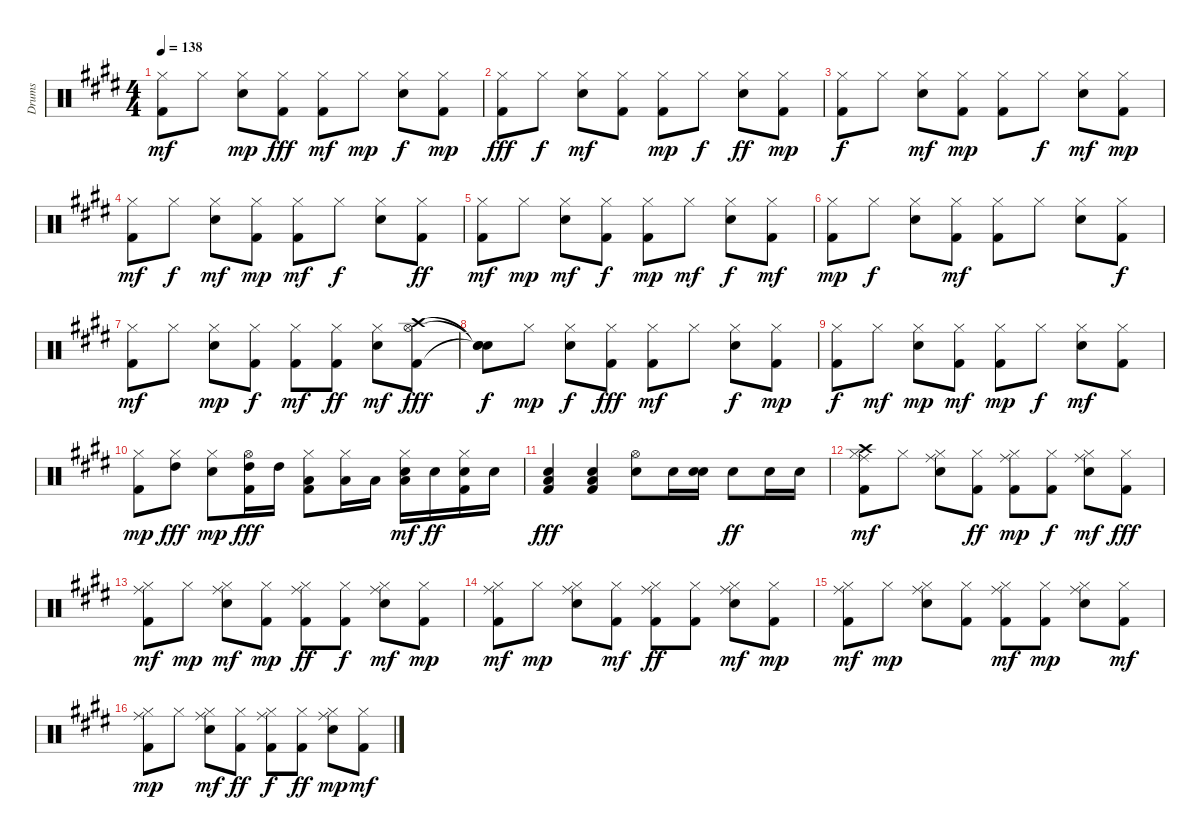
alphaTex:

\track ("Drums" "Drums") {instrument percussion}
\staff {score}
\articulation defaults
\ts (4 4)
\tempo 138
\clef neutral
\ks e
("Kick (hit) 2" "Hi-Hat (closed)").8{dy mf} "Hi-Hat (closed)".8 ("Snare (hit) 2" "Hi-Hat (closed)").8{dy mp} ("Kick (hit) 2" "Hi-Hat (closed)").8{dy fff} ("Kick (hit) 2" "Hi-Hat (closed)").8{dy mf} "Hi-Hat (closed)".8{dy mp} ("Snare (hit) 2" "Hi-Hat (closed)").8{dy f} ("Kick (hit) 2" "Hi-Hat (closed)").8{dy mp} |
("Kick (hit) 2" "Hi-Hat (closed)").8{dy fff} "Hi-Hat (closed)".8{dy f} ("Snare (hit) 2" "Hi-Hat (closed)").8{dy mf} ("Kick (hit) 2" "Hi-Hat (closed)").8 ("Kick (hit) 2" "Hi-Hat (closed)").8{dy mp} "Hi-Hat (closed)".8{dy f} ("Snare (hit) 2" "Hi-Hat (closed)").8{dy ff} ("Kick (hit) 2" "Hi-Hat (closed)").8{dy mp} |
("Kick (hit) 2" "Hi-Hat (closed)").8{dy f} "Hi-Hat (closed)".8 ("Snare (hit) 2" "Hi-Hat (closed)").8{dy mf} ("Kick (hit) 2" "Hi-Hat (closed)").8{dy mp} ("Kick (hit) 2" "Hi-Hat (closed)").8 "Hi-Hat (closed)".8{dy f} ("Snare (hit) 2" "Hi-Hat (closed)").8{dy mf} ("Kick (hit) 2" "Hi-Hat (closed)").8{dy mp} |
("Kick (hit) 2" "Hi-Hat (closed)").8{dy mf} "Hi-Hat (closed)".8{dy f} ("Snare (hit) 2" "Hi-Hat (closed)").8{dy mf} ("Kick (hit) 2" "Hi-Hat (closed)").8{dy mp} ("Kick (hit) 2" "Hi-Hat (closed)").8{dy mf} "Hi-Hat (closed)".8{dy f} ("Snare (hit) 2" "Hi-Hat (closed)").8 ("Kick (hit) 2" "Hi-Hat (closed)").8{dy ff} |
("Kick (hit) 2" "Hi-Hat (closed)").8{dy mf} "Hi-Hat (closed)".8{dy mp} ("Snare (hit) 2" "Hi-Hat (closed)").8{dy mf} ("Kick (hit) 2" "Hi-Hat (closed)").8{dy f} ("Kick (hit) 2" "Hi-Hat (closed)").8{dy mp} "Hi-Hat (closed)".8{dy mf} ("Snare (hit) 2" "Hi-Hat (closed)").8{dy f} ("Kick (hit) 2" "Hi-Hat (closed)").8{dy mf} |
("Kick (hit) 2" "Hi-Hat (closed)").8{dy mp} "Hi-Hat (closed)".8{dy f} ("Snare (hit) 2" "Hi-Hat (closed)").8 ("Kick (hit) 2" "Hi-Hat (closed)").8{dy mf} ("Kick (hit) 2" "Hi-Hat (closed)").8 "Hi-Hat (closed)".8 ("Snare (hit) 2" "Hi-Hat (closed)").8 ("Kick (hit) 2" "Hi-Hat (closed)").8{dy f} |
("Kick (hit) 2" "Hi-Hat (closed)").8{dy mf} "Hi-Hat (closed)".8 ("Snare (hit) 2" "Hi-Hat (closed)").8{dy mp} ("Kick (hit) 2" "Hi-Hat (closed)").8{dy f} ("Kick (hit) 2" "Hi-Hat (closed)").8{dy mf} ("Kick (hit) 2" "Hi-Hat (closed)").8{dy ff} ("Snare (hit) 2" "Hi-Hat (closed)").8{dy mf} ("Kick (hit) 2" "Hi-Hat (open)" "Crash high (hit)").8{dy fff} |
("Snare (hit)"{t} "Snare (hit)"{t} "Snare (hit)"{t}).8{dy f} "Hi-Hat (closed)".8{dy mp} ("Snare (hit) 2" "Hi-Hat (closed)").8{dy f} ("Kick (hit) 2" "Hi-Hat (closed)").8{dy fff} ("Kick (hit) 2" "Hi-Hat (closed)").8{dy mf} "Hi-Hat (closed)".8 ("Snare (hit) 2" "Hi-Hat (closed)").8{dy f} ("Kick (hit) 2" "Hi-Hat (closed)").8{dy mp} |
("Kick (hit) 2" "Hi-Hat (closed)").8{dy f} "Hi-Hat (closed)".8{dy mf} ("Snare (hit) 2" "Hi-Hat (closed)").8{dy mp} ("Kick (hit) 2" "Hi-Hat (closed)").8{dy mf} ("Kick (hit) 2" "Hi-Hat (closed)").8{dy mp} "Hi-Hat (closed)".8{dy f} ("Snare (hit) 2" "Hi-Hat (closed)").8{dy mf} ("Kick (hit) 2" "Hi-Hat (closed)").8 |
("Kick (hit) 2" "Hi-Hat (closed)").8{dy mp} ("Hi-Hat (closed)" "High Tom (hit)").8{dy fff} ("Snare (hit) 2" "Hi-Hat (closed)").8{dy mp} ("Kick (hit) 2" "Hi-Hat (open)" "High Tom (hit)").16{dy fff} "High Tom (hit)".16 ("Kick (hit) 2" "Hi-Hat (closed)" "Low Tom (hit)").8 ("Hi-Hat (closed)" "Low Tom (hit)").16 "Low Tom (hit)".16 ("Snare (hit) 2" "Low Floor Tom (hit)" "Hi-Hat (closed)").16{dy mf} "Snare (hit) 2".16{dy ff} ("Kick (hit) 2" "Snare (hit) 2" "Hi-Hat (closed)").16 "Snare (hit) 2".16 |
("Kick (hit) 2" "Snare (hit) 2" "Low Tom (hit)").4{dy fff} ("Kick (hit) 2" "Snare (hit) 2" "Low Floor Tom (hit)").4 ("Snare (hit) 2" "Hi-Hat (open)").8 "Snare (hit) 2".16 ("Snare (hit) 2" "Snare (hit) 2").16 "Snare (hit) 2".8{dy ff} "Snare (hit) 2".16 "Snare (hit) 2".16 |
("Kick (hit) 2" "Hi-Hat (closed)" "Crash high (hit)" "Ride (middle)").8{dy mf} "Hi-Hat (closed)".8 ("Snare (hit) 2" "Hi-Hat (closed)" "Ride (middle)").8 ("Kick (hit) 2" "Hi-Hat (closed)").8{dy ff} ("Kick (hit) 2" "Hi-Hat (closed)" "Ride (middle)").8{dy mp} ("Kick (hit) 2" "Hi-Hat (closed)").8{dy f} ("Snare (hit) 2" "Hi-Hat (closed)" "Ride (middle)").8{dy mf} ("Kick (hit) 2" "Hi-Hat (closed)").8{dy fff} |
("Kick (hit) 2" "Hi-Hat (closed)" "Ride (middle)").8{dy mf} "Hi-Hat (closed)".8{dy mp} ("Snare (hit) 2" "Hi-Hat (closed)" "Ride (middle)").8{dy mf} ("Kick (hit) 2" "Hi-Hat (closed)").8{dy mp} ("Kick (hit) 2" "Hi-Hat (closed)" "Ride (middle)").8{dy ff} ("Kick (hit) 2" "Hi-Hat (closed)").8{dy f} ("Snare (hit) 2" "Hi-Hat (closed)" "Ride (middle)").8{dy mf} ("Kick (hit) 2" "Hi-Hat (closed)").8{dy mp} |
("Kick (hit) 2" "Hi-Hat (closed)" "Ride (middle)").8{dy mf} "Hi-Hat (closed)".8{dy mp} ("Snare (hit) 2" "Hi-Hat (closed)" "Ride (middle)").8 ("Kick (hit) 2" "Hi-Hat (closed)").8{dy mf} ("Kick (hit) 2" "Hi-Hat (closed)" "Ride (middle)").8{dy ff} ("Kick (hit) 2" "Hi-Hat (closed)").8 ("Snare (hit) 2" "Hi-Hat (closed)" "Ride (middle)").8{dy mf} ("Kick (hit) 2" "Hi-Hat (closed)").8{dy mp} |
("Kick (hit) 2" "Hi-Hat (closed)" "Ride (middle)").8{dy mf} "Hi-Hat (closed)".8{dy mp} ("Snare (hit) 2" "Hi-Hat (closed)" "Ride (middle)").8 ("Kick (hit) 2" "Hi-Hat (closed)").8 ("Kick (hit) 2" "Hi-Hat (closed)" "Ride (middle)").8{dy mf} ("Kick (hit) 2" "Hi-Hat (closed)").8{dy mp} ("Snare (hit) 2" "Hi-Hat (closed)" "Ride (middle)").8 ("Kick (hit) 2" "Hi-Hat (closed)").8{dy mf} |
("Kick (hit) 2" "Hi-Hat (closed)" "Ride (middle)").8{dy mp} "Hi-Hat (closed)".8 ("Snare (hit) 2" "Hi-Hat (closed)" "Ride (middle)").8{dy mf} ("Kick (hit) 2" "Hi-Hat (closed)").8{dy ff} ("Kick (hit) 2" "Hi-Hat (closed)" "Ride (middle)").8{dy f} ("Kick (hit) 2" "Hi-Hat (closed)").8{dy ff} ("Snare (hit) 2" "Hi-Hat (closed)" "Ride (middle)").8{dy mp} ("Kick (hit) 2" "Hi-Hat (closed)").8{dy mf}
